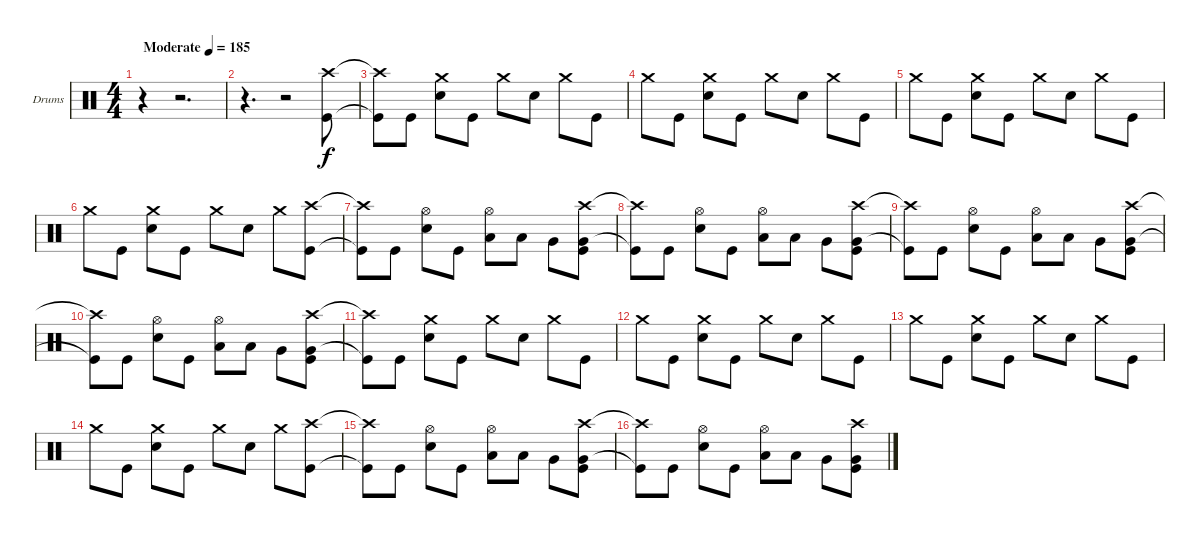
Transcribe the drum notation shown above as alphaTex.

\bracketExtendMode groupsimilarinstruments
\firstSystemTrackNameOrientation horizontal
\otherSystemsTrackNameOrientation horizontal
\track ("Drumkit" "Drums") {instrument percussion}
\staff {score}
\articulation defaults
\ts (4 4)
\beaming (8 2 2 2 2)
\tempo (185 "Moderate")
\clef neutral
\ks c
r.4{dy f} r.2{d} |
r.4{d} r.2 ("Crash high (hit)" "Kick (hit)").8 |
("Crash high (hit)"{t} "Kick (hit)"{t}).8 "Kick (hit)".8 ("Crash medium (hit)" "Snare (hit) 2").8 "Kick (hit)".8 "Crash medium (hit)".8 "Snare (hit) 2".8 "Crash medium (hit)".8 "Kick (hit)".8 |
"Crash medium (hit)".8 "Kick (hit)".8 ("Crash medium (hit)" "Snare (hit) 2").8 "Kick (hit)".8 "Crash medium (hit)".8 "Snare (hit) 2".8 "Crash medium (hit)".8 "Kick (hit)".8 |
"Crash medium (hit)".8 "Kick (hit)".8 ("Crash medium (hit)" "Snare (hit) 2").8 "Kick (hit)".8 "Crash medium (hit)".8 "Snare (hit) 2".8 "Crash medium (hit)".8 "Kick (hit)".8 |
"Crash medium (hit)".8 "Kick (hit)".8 ("Crash medium (hit)" "Snare (hit) 2").8 "Kick (hit)".8 "Crash medium (hit)".8 "Snare (hit) 2".8 "Crash medium (hit)".8 ("Crash high (hit)" "Kick (hit)").8 |
("Crash high (hit)"{t} "Kick (hit)"{t}).8 "Kick (hit)".8 ("Hi-Hat (open)" "Snare (hit) 2").8 "Kick (hit)".8 ("Hi-Hat (open)" "Low Tom (hit)").8 "Low Tom (hit)".8 "Very Low Tom (hit)".8 ("Crash high (hit)" "Very Low Tom (hit)" "Kick (hit)").8 |
("Crash high (hit)"{t} "Kick (hit)"{t}).8 "Kick (hit)".8 ("Hi-Hat (open)" "Snare (hit) 2").8 "Kick (hit)".8 ("Hi-Hat (open)" "Low Tom (hit)").8 "Low Tom (hit)".8 "Very Low Tom (hit)".8 ("Crash high (hit)" "Very Low Tom (hit)" "Kick (hit)").8 |
("Crash high (hit)"{t} "Kick (hit)"{t}).8 "Kick (hit)".8 ("Hi-Hat (open)" "Snare (hit) 2").8 "Kick (hit)".8 ("Hi-Hat (open)" "Low Tom (hit)").8 "Low Tom (hit)".8 "Very Low Tom (hit)".8 ("Crash high (hit)" "Very Low Tom (hit)" "Kick (hit)").8 |
("Crash high (hit)"{t} "Kick (hit)"{t}).8 "Kick (hit)".8 ("Hi-Hat (open)" "Snare (hit) 2").8 "Kick (hit)".8 ("Hi-Hat (open)" "Low Tom (hit)").8 "Low Tom (hit)".8 "Very Low Tom (hit)".8 ("Crash high (hit)" "Very Low Tom (hit)" "Kick (hit)").8 |
("Crash high (hit)"{t} "Kick (hit)"{t}).8 "Kick (hit)".8 ("Crash medium (hit)" "Snare (hit) 2").8 "Kick (hit)".8 "Crash medium (hit)".8 "Snare (hit) 2".8 "Crash medium (hit)".8 "Kick (hit)".8 |
"Crash medium (hit)".8 "Kick (hit)".8 ("Crash medium (hit)" "Snare (hit) 2").8 "Kick (hit)".8 "Crash medium (hit)".8 "Snare (hit) 2".8 "Crash medium (hit)".8 "Kick (hit)".8 |
"Crash medium (hit)".8 "Kick (hit)".8 ("Crash medium (hit)" "Snare (hit) 2").8 "Kick (hit)".8 "Crash medium (hit)".8 "Snare (hit) 2".8 "Crash medium (hit)".8 "Kick (hit)".8 |
"Crash medium (hit)".8 "Kick (hit)".8 ("Crash medium (hit)" "Snare (hit) 2").8 "Kick (hit)".8 "Crash medium (hit)".8 "Snare (hit) 2".8 "Crash medium (hit)".8 ("Crash high (hit)" "Kick (hit)").8 |
("Crash high (hit)"{t} "Kick (hit)"{t}).8 "Kick (hit)".8 ("Hi-Hat (open)" "Snare (hit) 2").8 "Kick (hit)".8 ("Hi-Hat (open)" "Low Tom (hit)").8 "Low Tom (hit)".8 "Very Low Tom (hit)".8 ("Crash high (hit)" "Very Low Tom (hit)" "Kick (hit)").8 |
("Crash high (hit)"{t} "Kick (hit)"{t}).8 "Kick (hit)".8 ("Hi-Hat (open)" "Snare (hit) 2").8 "Kick (hit)".8 ("Hi-Hat (open)" "Low Tom (hit)").8 "Low Tom (hit)".8 "Very Low Tom (hit)".8 ("Crash high (hit)" "Very Low Tom (hit)" "Kick (hit)").8
